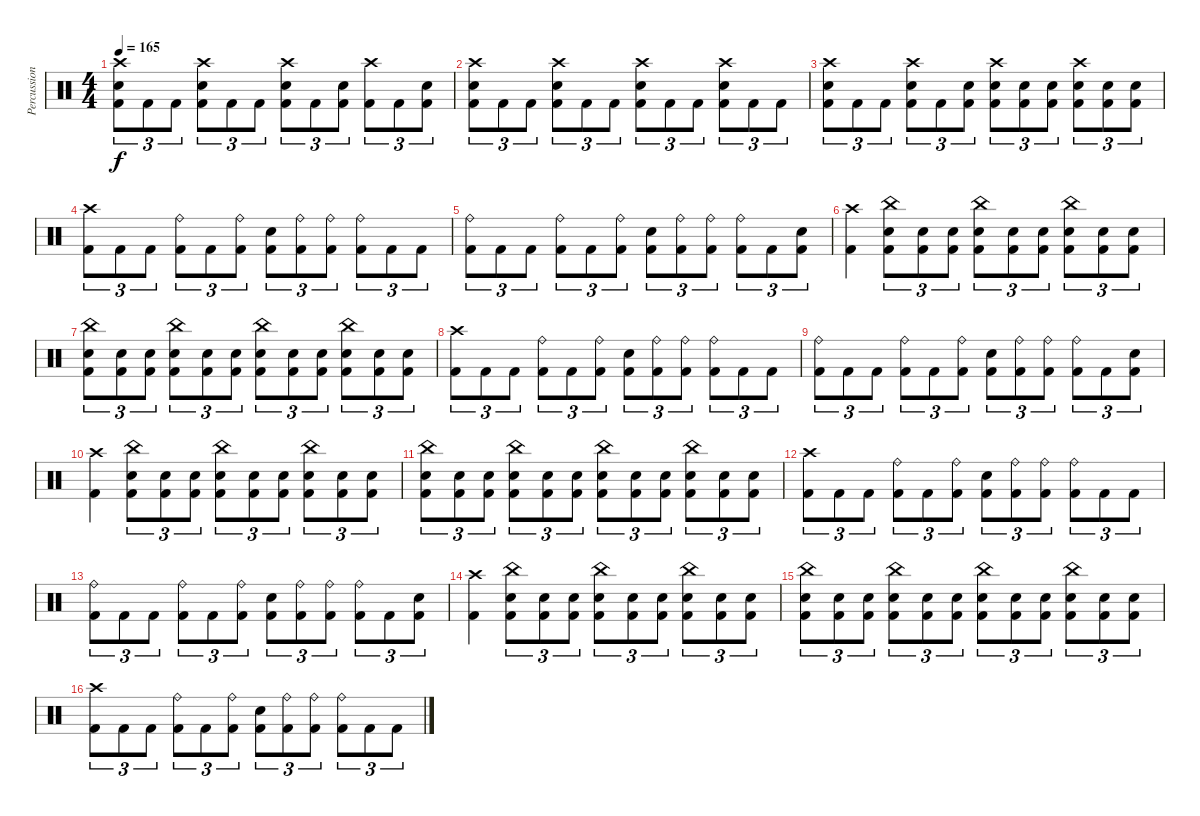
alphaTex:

\track ("Percussion" "Percussion") {instrument percussion}
\staff {score}
\articulation defaults
\ts (4 4)
\tempo 165
\clef neutral
\ks c
("Crash high (hit)" "Electric Snare (hit)" "Kick (hit) 2").8{tu (3 2) dy f} "Kick (hit) 2".8{tu (3 2)} "Kick (hit) 2".8{tu (3 2)} ("Crash high (hit)" "Electric Snare (hit)" "Kick (hit) 2").8{tu (3 2)} "Kick (hit) 2".8{tu (3 2)} "Kick (hit) 2".8{tu (3 2)} ("Crash high (hit)" "Electric Snare (hit)" "Kick (hit) 2").8{tu (3 2)} "Kick (hit) 2".8{tu (3 2)} ("Electric Snare (hit)" "Kick (hit) 2").8{tu (3 2)} ("Crash high (hit)" "Kick (hit) 2").8{tu (3 2)} "Kick (hit) 2".8{tu (3 2)} ("Electric Snare (hit)" "Kick (hit) 2").8{tu (3 2)} |
("Crash high (hit)" "Electric Snare (hit)" "Kick (hit) 2").8{tu (3 2)} "Kick (hit) 2".8{tu (3 2)} "Kick (hit) 2".8{tu (3 2)} ("Crash high (hit)" "Electric Snare (hit)" "Kick (hit) 2").8{tu (3 2)} "Kick (hit) 2".8{tu (3 2)} "Kick (hit) 2".8{tu (3 2)} ("Crash high (hit)" "Electric Snare (hit)" "Kick (hit) 2").8{tu (3 2)} "Kick (hit) 2".8{tu (3 2)} "Kick (hit) 2".8{tu (3 2)} ("Crash high (hit)" "Electric Snare (hit)" "Kick (hit) 2").8{tu (3 2)} "Kick (hit) 2".8{tu (3 2)} "Kick (hit) 2".8{tu (3 2)} |
("Crash high (hit)" "Electric Snare (hit)" "Kick (hit) 2").8{tu (3 2)} "Kick (hit) 2".8{tu (3 2)} "Kick (hit) 2".8{tu (3 2)} ("Crash high (hit)" "Electric Snare (hit)" "Kick (hit) 2").8{tu (3 2)} "Kick (hit) 2".8{tu (3 2)} ("Electric Snare (hit)" "Kick (hit) 2").8{tu (3 2)} ("Crash high (hit)" "Electric Snare (hit)" "Kick (hit) 2").8{tu (3 2)} ("Electric Snare (hit)" "Kick (hit) 2").8{tu (3 2)} ("Electric Snare (hit)" "Kick (hit) 2").8{tu (3 2)} ("Crash high (hit)" "Electric Snare (hit)" "Kick (hit) 2").8{tu (3 2)} ("Electric Snare (hit)" "Kick (hit) 2").8{tu (3 2)} ("Electric Snare (hit)" "Kick (hit) 2").8{tu (3 2)} |
("Crash high (hit)" "Kick (hit) 2").8{tu (3 2)} "Kick (hit) 2".8{tu (3 2)} "Kick (hit) 2".8{tu (3 2)} ("Ride (bell)" "Kick (hit) 2").8{tu (3 2)} "Kick (hit) 2".8{tu (3 2)} ("Ride (bell)" "Kick (hit) 2").8{tu (3 2)} ("Electric Snare (hit)" "Kick (hit) 2").8{tu (3 2)} ("Ride (bell)" "Kick (hit) 2").8{tu (3 2)} ("Ride (bell)" "Kick (hit) 2").8{tu (3 2)} ("Ride (bell)" "Kick (hit) 2").8{tu (3 2)} "Kick (hit) 2".8{tu (3 2)} "Kick (hit) 2".8{tu (3 2)} |
("Ride (bell)" "Kick (hit) 2").8{tu (3 2)} "Kick (hit) 2".8{tu (3 2)} "Kick (hit) 2".8{tu (3 2)} ("Ride (bell)" "Kick (hit) 2").8{tu (3 2)} "Kick (hit) 2".8{tu (3 2)} ("Ride (bell)" "Kick (hit) 2").8{tu (3 2)} ("Electric Snare (hit)" "Kick (hit) 2").8{tu (3 2)} ("Ride (bell)" "Kick (hit) 2").8{tu (3 2)} ("Ride (bell)" "Kick (hit) 2").8{tu (3 2)} ("Ride (bell)" "Kick (hit) 2").8{tu (3 2)} "Kick (hit) 2".8{tu (3 2)} ("Electric Snare (hit)" "Kick (hit) 2").8{tu (3 2)} |
("Crash high (hit)" "Kick (hit) 2").4 ("China (hit)" "Electric Snare (hit)" "Kick (hit) 2").8{tu (3 2)} ("Electric Snare (hit)" "Kick (hit) 2").8{tu (3 2)} ("Electric Snare (hit)" "Kick (hit) 2").8{tu (3 2)} ("China (hit)" "Electric Snare (hit)" "Kick (hit) 2").8{tu (3 2)} ("Electric Snare (hit)" "Kick (hit) 2").8{tu (3 2)} ("Electric Snare (hit)" "Kick (hit) 2").8{tu (3 2)} ("China (hit)" "Electric Snare (hit)" "Kick (hit) 2").8{tu (3 2)} ("Electric Snare (hit)" "Kick (hit) 2").8{tu (3 2)} ("Electric Snare (hit)" "Kick (hit) 2").8{tu (3 2)} |
("China (hit)" "Electric Snare (hit)" "Kick (hit) 2").8{tu (3 2)} ("Electric Snare (hit)" "Kick (hit) 2").8{tu (3 2)} ("Electric Snare (hit)" "Kick (hit) 2").8{tu (3 2)} ("China (hit)" "Electric Snare (hit)" "Kick (hit) 2").8{tu (3 2)} ("Electric Snare (hit)" "Kick (hit) 2").8{tu (3 2)} ("Electric Snare (hit)" "Kick (hit) 2").8{tu (3 2)} ("China (hit)" "Electric Snare (hit)" "Kick (hit) 2").8{tu (3 2)} ("Electric Snare (hit)" "Kick (hit) 2").8{tu (3 2)} ("Electric Snare (hit)" "Kick (hit) 2").8{tu (3 2)} ("China (hit)" "Electric Snare (hit)" "Kick (hit) 2").8{tu (3 2)} ("Electric Snare (hit)" "Kick (hit) 2").8{tu (3 2)} ("Electric Snare (hit)" "Kick (hit) 2").8{tu (3 2)} |
("Crash high (hit)" "Kick (hit) 2").8{tu (3 2)} "Kick (hit) 2".8{tu (3 2)} "Kick (hit) 2".8{tu (3 2)} ("Ride (bell)" "Kick (hit) 2").8{tu (3 2)} "Kick (hit) 2".8{tu (3 2)} ("Ride (bell)" "Kick (hit) 2").8{tu (3 2)} ("Electric Snare (hit)" "Kick (hit) 2").8{tu (3 2)} ("Ride (bell)" "Kick (hit) 2").8{tu (3 2)} ("Ride (bell)" "Kick (hit) 2").8{tu (3 2)} ("Ride (bell)" "Kick (hit) 2").8{tu (3 2)} "Kick (hit) 2".8{tu (3 2)} "Kick (hit) 2".8{tu (3 2)} |
("Ride (bell)" "Kick (hit) 2").8{tu (3 2)} "Kick (hit) 2".8{tu (3 2)} "Kick (hit) 2".8{tu (3 2)} ("Ride (bell)" "Kick (hit) 2").8{tu (3 2)} "Kick (hit) 2".8{tu (3 2)} ("Ride (bell)" "Kick (hit) 2").8{tu (3 2)} ("Electric Snare (hit)" "Kick (hit) 2").8{tu (3 2)} ("Ride (bell)" "Kick (hit) 2").8{tu (3 2)} ("Ride (bell)" "Kick (hit) 2").8{tu (3 2)} ("Ride (bell)" "Kick (hit) 2").8{tu (3 2)} "Kick (hit) 2".8{tu (3 2)} ("Electric Snare (hit)" "Kick (hit) 2").8{tu (3 2)} |
("Crash high (hit)" "Kick (hit) 2").4 ("China (hit)" "Electric Snare (hit)" "Kick (hit) 2").8{tu (3 2)} ("Electric Snare (hit)" "Kick (hit) 2").8{tu (3 2)} ("Electric Snare (hit)" "Kick (hit) 2").8{tu (3 2)} ("China (hit)" "Electric Snare (hit)" "Kick (hit) 2").8{tu (3 2)} ("Electric Snare (hit)" "Kick (hit) 2").8{tu (3 2)} ("Electric Snare (hit)" "Kick (hit) 2").8{tu (3 2)} ("China (hit)" "Electric Snare (hit)" "Kick (hit) 2").8{tu (3 2)} ("Electric Snare (hit)" "Kick (hit) 2").8{tu (3 2)} ("Electric Snare (hit)" "Kick (hit) 2").8{tu (3 2)} |
("China (hit)" "Electric Snare (hit)" "Kick (hit) 2").8{tu (3 2)} ("Electric Snare (hit)" "Kick (hit) 2").8{tu (3 2)} ("Electric Snare (hit)" "Kick (hit) 2").8{tu (3 2)} ("China (hit)" "Electric Snare (hit)" "Kick (hit) 2").8{tu (3 2)} ("Electric Snare (hit)" "Kick (hit) 2").8{tu (3 2)} ("Electric Snare (hit)" "Kick (hit) 2").8{tu (3 2)} ("China (hit)" "Electric Snare (hit)" "Kick (hit) 2").8{tu (3 2)} ("Electric Snare (hit)" "Kick (hit) 2").8{tu (3 2)} ("Electric Snare (hit)" "Kick (hit) 2").8{tu (3 2)} ("China (hit)" "Electric Snare (hit)" "Kick (hit) 2").8{tu (3 2)} ("Electric Snare (hit)" "Kick (hit) 2").8{tu (3 2)} ("Electric Snare (hit)" "Kick (hit) 2").8{tu (3 2)} |
("Crash high (hit)" "Kick (hit) 2").8{tu (3 2)} "Kick (hit) 2".8{tu (3 2)} "Kick (hit) 2".8{tu (3 2)} ("Ride (bell)" "Kick (hit) 2").8{tu (3 2)} "Kick (hit) 2".8{tu (3 2)} ("Ride (bell)" "Kick (hit) 2").8{tu (3 2)} ("Electric Snare (hit)" "Kick (hit) 2").8{tu (3 2)} ("Ride (bell)" "Kick (hit) 2").8{tu (3 2)} ("Ride (bell)" "Kick (hit) 2").8{tu (3 2)} ("Ride (bell)" "Kick (hit) 2").8{tu (3 2)} "Kick (hit) 2".8{tu (3 2)} "Kick (hit) 2".8{tu (3 2)} |
("Ride (bell)" "Kick (hit) 2").8{tu (3 2)} "Kick (hit) 2".8{tu (3 2)} "Kick (hit) 2".8{tu (3 2)} ("Ride (bell)" "Kick (hit) 2").8{tu (3 2)} "Kick (hit) 2".8{tu (3 2)} ("Ride (bell)" "Kick (hit) 2").8{tu (3 2)} ("Electric Snare (hit)" "Kick (hit) 2").8{tu (3 2)} ("Ride (bell)" "Kick (hit) 2").8{tu (3 2)} ("Ride (bell)" "Kick (hit) 2").8{tu (3 2)} ("Ride (bell)" "Kick (hit) 2").8{tu (3 2)} "Kick (hit) 2".8{tu (3 2)} ("Electric Snare (hit)" "Kick (hit) 2").8{tu (3 2)} |
("Crash high (hit)" "Kick (hit) 2").4 ("China (hit)" "Electric Snare (hit)" "Kick (hit) 2").8{tu (3 2)} ("Electric Snare (hit)" "Kick (hit) 2").8{tu (3 2)} ("Electric Snare (hit)" "Kick (hit) 2").8{tu (3 2)} ("China (hit)" "Electric Snare (hit)" "Kick (hit) 2").8{tu (3 2)} ("Electric Snare (hit)" "Kick (hit) 2").8{tu (3 2)} ("Electric Snare (hit)" "Kick (hit) 2").8{tu (3 2)} ("China (hit)" "Electric Snare (hit)" "Kick (hit) 2").8{tu (3 2)} ("Electric Snare (hit)" "Kick (hit) 2").8{tu (3 2)} ("Electric Snare (hit)" "Kick (hit) 2").8{tu (3 2)} |
("China (hit)" "Electric Snare (hit)" "Kick (hit) 2").8{tu (3 2)} ("Electric Snare (hit)" "Kick (hit) 2").8{tu (3 2)} ("Electric Snare (hit)" "Kick (hit) 2").8{tu (3 2)} ("China (hit)" "Electric Snare (hit)" "Kick (hit) 2").8{tu (3 2)} ("Electric Snare (hit)" "Kick (hit) 2").8{tu (3 2)} ("Electric Snare (hit)" "Kick (hit) 2").8{tu (3 2)} ("China (hit)" "Electric Snare (hit)" "Kick (hit) 2").8{tu (3 2)} ("Electric Snare (hit)" "Kick (hit) 2").8{tu (3 2)} ("Electric Snare (hit)" "Kick (hit) 2").8{tu (3 2)} ("China (hit)" "Electric Snare (hit)" "Kick (hit) 2").8{tu (3 2)} ("Electric Snare (hit)" "Kick (hit) 2").8{tu (3 2)} ("Electric Snare (hit)" "Kick (hit) 2").8{tu (3 2)} |
("Crash high (hit)" "Kick (hit) 2").8{tu (3 2)} "Kick (hit) 2".8{tu (3 2)} "Kick (hit) 2".8{tu (3 2)} ("Ride (bell)" "Kick (hit) 2").8{tu (3 2)} "Kick (hit) 2".8{tu (3 2)} ("Ride (bell)" "Kick (hit) 2").8{tu (3 2)} ("Electric Snare (hit)" "Kick (hit) 2").8{tu (3 2)} ("Ride (bell)" "Kick (hit) 2").8{tu (3 2)} ("Ride (bell)" "Kick (hit) 2").8{tu (3 2)} ("Ride (bell)" "Kick (hit) 2").8{tu (3 2)} "Kick (hit) 2".8{tu (3 2)} "Kick (hit) 2".8{tu (3 2)}
